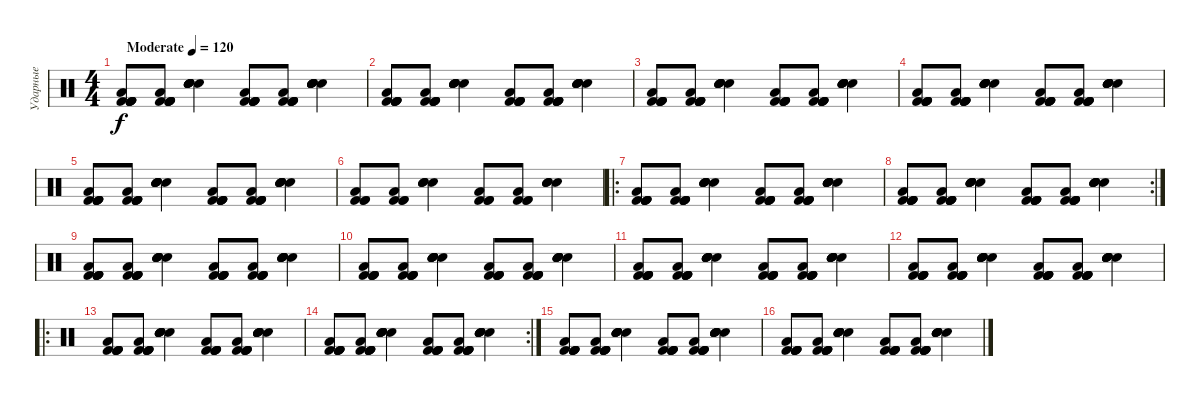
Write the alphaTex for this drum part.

\track ("Ударные" "Ударные") {instrument percussion}
\staff {score}
\articulation defaults
\ts (4 4)
\tempo (120 "Moderate")
\tempo 80
\tempo (120 "Moderate")
\clef neutral
\ks c
("Kick (hit) 2" "Kick (hit) 2" "Kick (hit) 2" "Kick (hit) 2" "Low Floor Tom (hit)" "Kick (hit) 2").8{dy f} ("Kick (hit) 2" "Kick (hit) 2" "Low Floor Tom (hit)" "Kick (hit) 2" "Kick (hit) 2" "Kick (hit) 2").8 ("Snare (hit) 2" "Hand Clap (hit)" "Hand Clap (hit)" "Hand Clap (hit)" "Hand Clap (hit)" "Snare (hit) 2").4 ("Kick (hit) 2" "Kick (hit) 2" "Kick (hit) 2" "Kick (hit) 2" "Low Floor Tom (hit)" "Kick (hit) 2").8 ("Kick (hit) 2" "Kick (hit) 2" "Low Floor Tom (hit)" "Kick (hit) 2" "Kick (hit) 2" "Kick (hit) 2").8 ("Snare (hit) 2" "Hand Clap (hit)" "Hand Clap (hit)" "Hand Clap (hit)" "Hand Clap (hit)" "Snare (hit) 2").4 |
("Kick (hit) 2" "Kick (hit) 2" "Kick (hit) 2" "Kick (hit) 2" "Low Floor Tom (hit)" "Kick (hit) 2").8 ("Kick (hit) 2" "Kick (hit) 2" "Low Floor Tom (hit)" "Kick (hit) 2" "Kick (hit) 2" "Kick (hit) 2").8 ("Snare (hit) 2" "Hand Clap (hit)" "Hand Clap (hit)" "Hand Clap (hit)" "Hand Clap (hit)" "Snare (hit) 2").4 ("Kick (hit) 2" "Kick (hit) 2" "Kick (hit) 2" "Kick (hit) 2" "Low Floor Tom (hit)" "Kick (hit) 2").8 ("Kick (hit) 2" "Kick (hit) 2" "Low Floor Tom (hit)" "Kick (hit) 2" "Kick (hit) 2" "Kick (hit) 2").8 ("Snare (hit) 2" "Hand Clap (hit)" "Hand Clap (hit)" "Hand Clap (hit)" "Hand Clap (hit)" "Snare (hit) 2").4 |
("Kick (hit) 2" "Kick (hit) 2" "Kick (hit) 2" "Kick (hit) 2" "Low Floor Tom (hit)" "Kick (hit) 2").8 ("Kick (hit) 2" "Kick (hit) 2" "Low Floor Tom (hit)" "Kick (hit) 2" "Kick (hit) 2" "Kick (hit) 2").8 ("Snare (hit) 2" "Hand Clap (hit)" "Hand Clap (hit)" "Hand Clap (hit)" "Hand Clap (hit)" "Snare (hit) 2").4 ("Kick (hit) 2" "Kick (hit) 2" "Kick (hit) 2" "Kick (hit) 2" "Low Floor Tom (hit)" "Kick (hit) 2").8 ("Kick (hit) 2" "Kick (hit) 2" "Low Floor Tom (hit)" "Kick (hit) 2" "Kick (hit) 2" "Kick (hit) 2").8 ("Snare (hit) 2" "Hand Clap (hit)" "Hand Clap (hit)" "Hand Clap (hit)" "Hand Clap (hit)" "Snare (hit) 2").4 |
("Kick (hit) 2" "Kick (hit) 2" "Kick (hit) 2" "Kick (hit) 2" "Low Floor Tom (hit)" "Kick (hit) 2").8 ("Kick (hit) 2" "Kick (hit) 2" "Low Floor Tom (hit)" "Kick (hit) 2" "Kick (hit) 2" "Kick (hit) 2").8 ("Snare (hit) 2" "Hand Clap (hit)" "Hand Clap (hit)" "Hand Clap (hit)" "Hand Clap (hit)" "Snare (hit) 2").4 ("Kick (hit) 2" "Kick (hit) 2" "Kick (hit) 2" "Kick (hit) 2" "Low Floor Tom (hit)" "Kick (hit) 2").8 ("Kick (hit) 2" "Kick (hit) 2" "Low Floor Tom (hit)" "Kick (hit) 2" "Kick (hit) 2" "Kick (hit) 2").8 ("Snare (hit) 2" "Hand Clap (hit)" "Hand Clap (hit)" "Hand Clap (hit)" "Hand Clap (hit)" "Snare (hit) 2").4 |
("Kick (hit) 2" "Kick (hit) 2" "Kick (hit) 2" "Kick (hit) 2" "Low Floor Tom (hit)" "Kick (hit) 2").8 ("Kick (hit) 2" "Kick (hit) 2" "Low Floor Tom (hit)" "Kick (hit) 2" "Kick (hit) 2" "Kick (hit) 2").8 ("Snare (hit) 2" "Hand Clap (hit)" "Hand Clap (hit)" "Hand Clap (hit)" "Hand Clap (hit)" "Snare (hit) 2").4 ("Kick (hit) 2" "Kick (hit) 2" "Kick (hit) 2" "Kick (hit) 2" "Low Floor Tom (hit)" "Kick (hit) 2").8 ("Kick (hit) 2" "Kick (hit) 2" "Low Floor Tom (hit)" "Kick (hit) 2" "Kick (hit) 2" "Kick (hit) 2").8 ("Snare (hit) 2" "Hand Clap (hit)" "Hand Clap (hit)" "Hand Clap (hit)" "Hand Clap (hit)" "Snare (hit) 2").4 |
("Kick (hit) 2" "Kick (hit) 2" "Low Floor Tom (hit)" "Kick (hit) 2").8 ("Low Floor Tom (hit)" "Kick (hit) 2" "Kick (hit) 2" "Kick (hit) 2").8 ("Hand Clap (hit)" "Hand Clap (hit)" "Snare (hit) 2" "Snare (hit) 2").4 ("Kick (hit) 2" "Kick (hit) 2" "Low Floor Tom (hit)" "Kick (hit) 2").8 ("Low Floor Tom (hit)" "Kick (hit) 2" "Kick (hit) 2" "Kick (hit) 2").8 ("Hand Clap (hit)" "Hand Clap (hit)" "Hand Clap (hit)" "Snare (hit) 2").4 |
\ro
("Kick (hit) 2" "Kick (hit) 2" "Kick (hit) 2" "Kick (hit) 2" "Low Floor Tom (hit)" "Kick (hit) 2").8 ("Kick (hit) 2" "Kick (hit) 2" "Low Floor Tom (hit)" "Kick (hit) 2" "Kick (hit) 2" "Kick (hit) 2").8 ("Snare (hit) 2" "Hand Clap (hit)" "Hand Clap (hit)" "Hand Clap (hit)" "Hand Clap (hit)" "Snare (hit) 2").4 ("Kick (hit) 2" "Kick (hit) 2" "Kick (hit) 2" "Kick (hit) 2" "Low Floor Tom (hit)" "Kick (hit) 2").8 ("Kick (hit) 2" "Kick (hit) 2" "Low Floor Tom (hit)" "Kick (hit) 2" "Kick (hit) 2" "Kick (hit) 2").8 ("Snare (hit) 2" "Hand Clap (hit)" "Hand Clap (hit)" "Hand Clap (hit)" "Hand Clap (hit)" "Snare (hit) 2").4 |
\rc 2
("Kick (hit) 2" "Kick (hit) 2" "Kick (hit) 2" "Kick (hit) 2" "Low Floor Tom (hit)" "Kick (hit) 2").8 ("Kick (hit) 2" "Kick (hit) 2" "Low Floor Tom (hit)" "Kick (hit) 2" "Kick (hit) 2" "Kick (hit) 2").8 ("Snare (hit) 2" "Hand Clap (hit)" "Hand Clap (hit)" "Hand Clap (hit)" "Hand Clap (hit)" "Snare (hit) 2").4 ("Kick (hit) 2" "Kick (hit) 2" "Kick (hit) 2" "Kick (hit) 2" "Low Floor Tom (hit)" "Kick (hit) 2").8 ("Kick (hit) 2" "Kick (hit) 2" "Low Floor Tom (hit)" "Kick (hit) 2" "Kick (hit) 2" "Kick (hit) 2").8 ("Snare (hit) 2" "Hand Clap (hit)" "Hand Clap (hit)" "Hand Clap (hit)" "Hand Clap (hit)" "Snare (hit) 2").4 |
("Kick (hit) 2" "Kick (hit) 2" "Kick (hit) 2" "Kick (hit) 2" "Low Floor Tom (hit)" "Kick (hit) 2").8 ("Kick (hit) 2" "Kick (hit) 2" "Low Floor Tom (hit)" "Kick (hit) 2" "Kick (hit) 2" "Kick (hit) 2").8 ("Snare (hit) 2" "Hand Clap (hit)" "Hand Clap (hit)" "Hand Clap (hit)" "Hand Clap (hit)" "Snare (hit) 2").4 ("Kick (hit) 2" "Kick (hit) 2" "Kick (hit) 2" "Kick (hit) 2" "Low Floor Tom (hit)" "Kick (hit) 2").8 ("Kick (hit) 2" "Kick (hit) 2" "Low Floor Tom (hit)" "Kick (hit) 2" "Kick (hit) 2" "Kick (hit) 2").8 ("Snare (hit) 2" "Hand Clap (hit)" "Hand Clap (hit)" "Hand Clap (hit)" "Hand Clap (hit)" "Snare (hit) 2").4 |
("Kick (hit) 2" "Kick (hit) 2" "Kick (hit) 2" "Kick (hit) 2" "Low Floor Tom (hit)" "Kick (hit) 2").8 ("Kick (hit) 2" "Kick (hit) 2" "Low Floor Tom (hit)" "Kick (hit) 2" "Kick (hit) 2" "Kick (hit) 2").8 ("Snare (hit) 2" "Hand Clap (hit)" "Hand Clap (hit)" "Hand Clap (hit)" "Hand Clap (hit)" "Snare (hit) 2").4 ("Kick (hit) 2" "Kick (hit) 2" "Kick (hit) 2" "Kick (hit) 2" "Low Floor Tom (hit)" "Kick (hit) 2").8 ("Kick (hit) 2" "Kick (hit) 2" "Low Floor Tom (hit)" "Kick (hit) 2" "Kick (hit) 2" "Kick (hit) 2").8 ("Snare (hit) 2" "Hand Clap (hit)" "Hand Clap (hit)" "Hand Clap (hit)" "Hand Clap (hit)" "Snare (hit) 2").4 |
("Kick (hit) 2" "Kick (hit) 2" "Kick (hit) 2" "Kick (hit) 2" "Low Floor Tom (hit)" "Kick (hit) 2").8 ("Kick (hit) 2" "Kick (hit) 2" "Low Floor Tom (hit)" "Kick (hit) 2" "Kick (hit) 2" "Kick (hit) 2").8 ("Snare (hit) 2" "Hand Clap (hit)" "Hand Clap (hit)" "Hand Clap (hit)" "Hand Clap (hit)" "Snare (hit) 2").4 ("Kick (hit) 2" "Kick (hit) 2" "Kick (hit) 2" "Kick (hit) 2" "Low Floor Tom (hit)" "Kick (hit) 2").8 ("Kick (hit) 2" "Kick (hit) 2" "Low Floor Tom (hit)" "Kick (hit) 2" "Kick (hit) 2" "Kick (hit) 2").8 ("Snare (hit) 2" "Hand Clap (hit)" "Hand Clap (hit)" "Hand Clap (hit)" "Hand Clap (hit)" "Snare (hit) 2").4 |
("Kick (hit) 2" "Kick (hit) 2" "Kick (hit) 2" "Kick (hit) 2" "Low Floor Tom (hit)" "Kick (hit) 2").8 ("Kick (hit) 2" "Kick (hit) 2" "Low Floor Tom (hit)" "Kick (hit) 2" "Kick (hit) 2" "Kick (hit) 2").8 ("Snare (hit) 2" "Hand Clap (hit)" "Hand Clap (hit)" "Hand Clap (hit)" "Hand Clap (hit)" "Snare (hit) 2").4 ("Kick (hit) 2" "Kick (hit) 2" "Kick (hit) 2" "Kick (hit) 2" "Low Floor Tom (hit)" "Kick (hit) 2").8 ("Kick (hit) 2" "Kick (hit) 2" "Low Floor Tom (hit)" "Kick (hit) 2" "Kick (hit) 2" "Kick (hit) 2").8 ("Snare (hit) 2" "Hand Clap (hit)" "Hand Clap (hit)" "Hand Clap (hit)" "Hand Clap (hit)" "Snare (hit) 2").4 |
\ro
("Kick (hit) 2" "Kick (hit) 2" "Kick (hit) 2" "Kick (hit) 2" "Low Floor Tom (hit)" "Kick (hit) 2").8 ("Kick (hit) 2" "Kick (hit) 2" "Low Floor Tom (hit)" "Kick (hit) 2" "Kick (hit) 2" "Kick (hit) 2").8 ("Snare (hit) 2" "Hand Clap (hit)" "Hand Clap (hit)" "Hand Clap (hit)" "Hand Clap (hit)" "Snare (hit) 2").4 ("Kick (hit) 2" "Kick (hit) 2" "Kick (hit) 2" "Kick (hit) 2" "Low Floor Tom (hit)" "Kick (hit) 2").8 ("Kick (hit) 2" "Kick (hit) 2" "Low Floor Tom (hit)" "Kick (hit) 2" "Kick (hit) 2" "Kick (hit) 2").8 ("Snare (hit) 2" "Hand Clap (hit)" "Hand Clap (hit)" "Hand Clap (hit)" "Hand Clap (hit)" "Snare (hit) 2").4 |
\rc 2
("Kick (hit) 2" "Kick (hit) 2" "Kick (hit) 2" "Kick (hit) 2" "Low Floor Tom (hit)" "Kick (hit) 2").8 ("Kick (hit) 2" "Kick (hit) 2" "Low Floor Tom (hit)" "Kick (hit) 2" "Kick (hit) 2" "Kick (hit) 2").8 ("Snare (hit) 2" "Hand Clap (hit)" "Hand Clap (hit)" "Hand Clap (hit)" "Hand Clap (hit)" "Snare (hit) 2").4 ("Kick (hit) 2" "Kick (hit) 2" "Kick (hit) 2" "Kick (hit) 2" "Low Floor Tom (hit)" "Kick (hit) 2").8 ("Kick (hit) 2" "Kick (hit) 2" "Low Floor Tom (hit)" "Kick (hit) 2" "Kick (hit) 2" "Kick (hit) 2").8 ("Snare (hit) 2" "Hand Clap (hit)" "Hand Clap (hit)" "Hand Clap (hit)" "Hand Clap (hit)" "Snare (hit) 2").4 |
("Kick (hit) 2" "Kick (hit) 2" "Kick (hit) 2" "Kick (hit) 2" "Low Floor Tom (hit)" "Kick (hit) 2").8 ("Kick (hit) 2" "Kick (hit) 2" "Low Floor Tom (hit)" "Kick (hit) 2" "Kick (hit) 2" "Kick (hit) 2").8 ("Snare (hit) 2" "Hand Clap (hit)" "Hand Clap (hit)" "Hand Clap (hit)" "Hand Clap (hit)" "Snare (hit) 2").4 ("Kick (hit) 2" "Kick (hit) 2" "Kick (hit) 2" "Kick (hit) 2" "Low Floor Tom (hit)" "Kick (hit) 2").8 ("Kick (hit) 2" "Kick (hit) 2" "Low Floor Tom (hit)" "Kick (hit) 2" "Kick (hit) 2" "Kick (hit) 2").8 ("Snare (hit) 2" "Hand Clap (hit)" "Hand Clap (hit)" "Hand Clap (hit)" "Hand Clap (hit)" "Snare (hit) 2").4 |
("Kick (hit) 2" "Kick (hit) 2" "Kick (hit) 2" "Kick (hit) 2" "Low Floor Tom (hit)" "Kick (hit) 2").8 ("Kick (hit) 2" "Kick (hit) 2" "Low Floor Tom (hit)" "Kick (hit) 2" "Kick (hit) 2" "Kick (hit) 2").8 ("Snare (hit) 2" "Hand Clap (hit)" "Hand Clap (hit)" "Hand Clap (hit)" "Hand Clap (hit)" "Snare (hit) 2").4 ("Kick (hit) 2" "Kick (hit) 2" "Kick (hit) 2" "Kick (hit) 2" "Low Floor Tom (hit)" "Kick (hit) 2").8 ("Kick (hit) 2" "Kick (hit) 2" "Low Floor Tom (hit)" "Kick (hit) 2" "Kick (hit) 2" "Kick (hit) 2").8 ("Snare (hit) 2" "Hand Clap (hit)" "Hand Clap (hit)" "Hand Clap (hit)" "Hand Clap (hit)" "Snare (hit) 2").4
